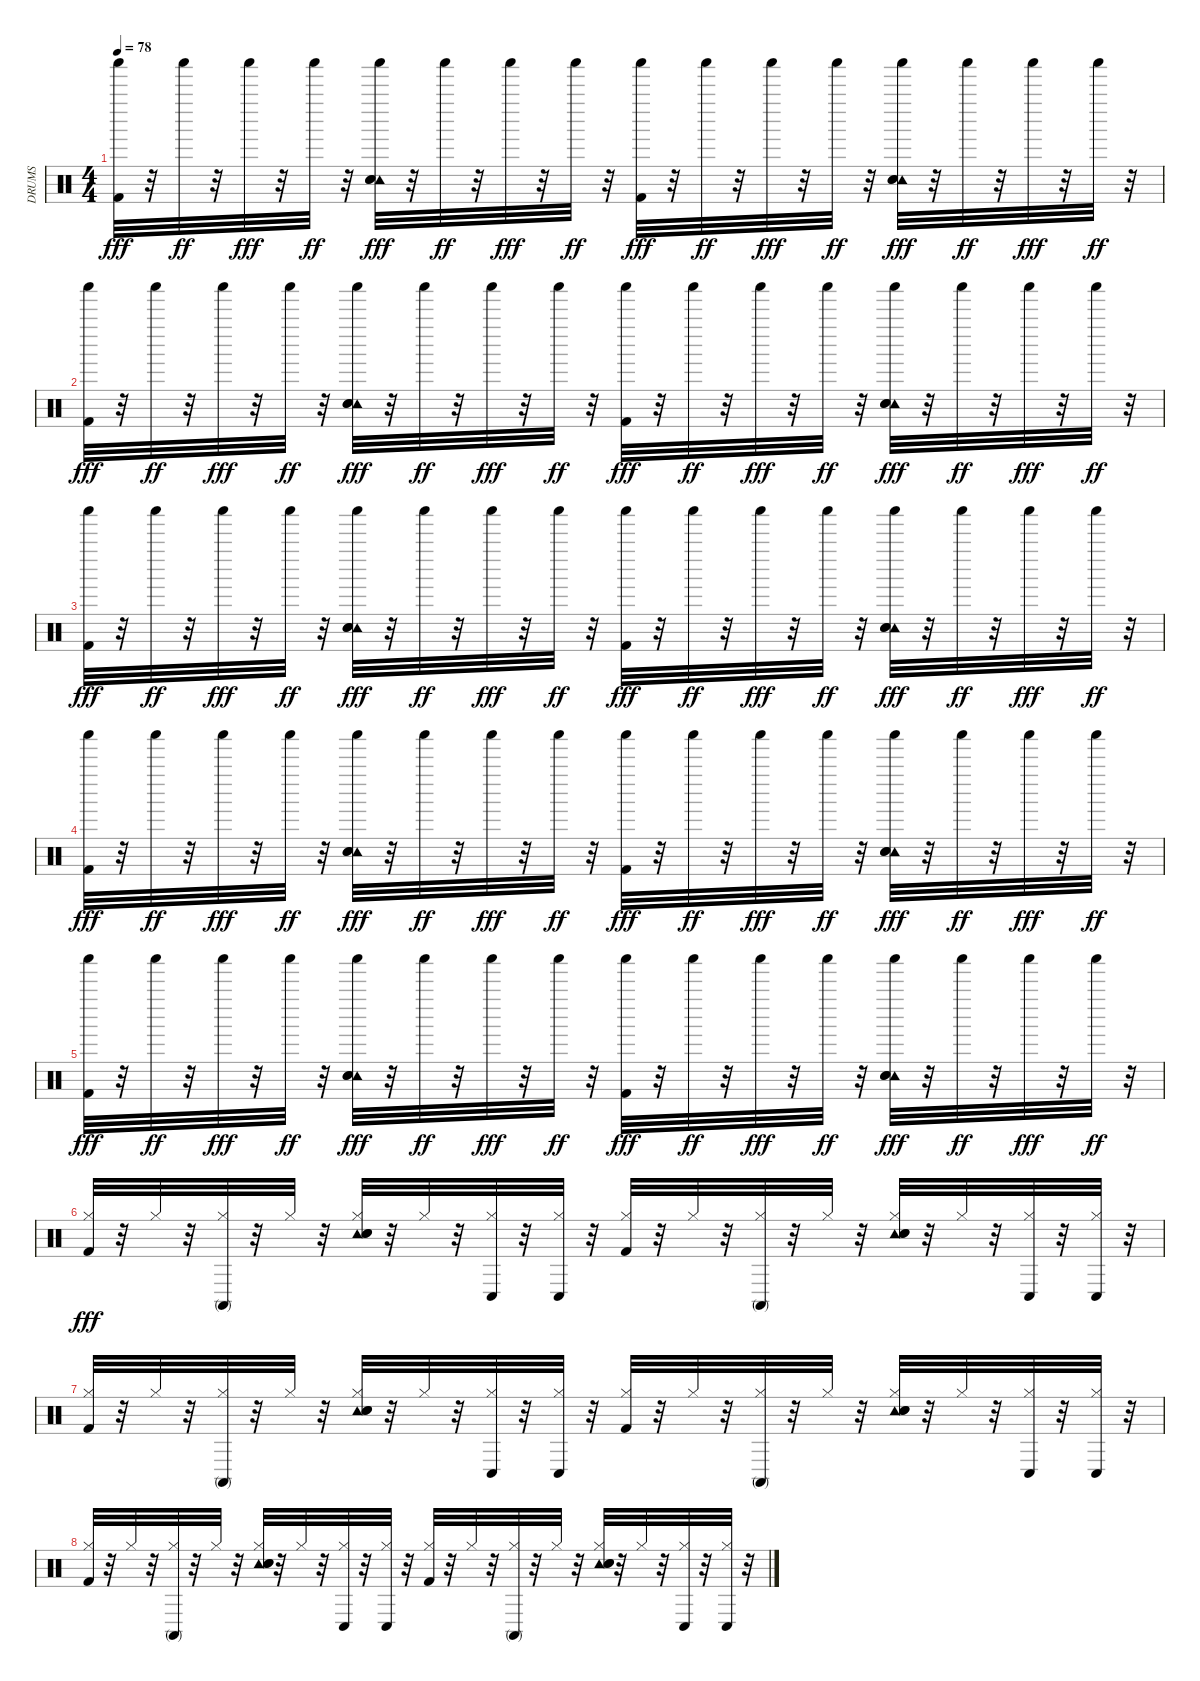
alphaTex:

\track ("DRUMS" "DRUMS") {instrument percussion}
\staff {score}
\articulation defaults
\ts (4 4)
\tempo 78
\clef neutral
\ks c
("Shaker (hit)" "Kick (hit) 2").32{dy fff} r.32 "Shaker (hit)".32{dy ff} r.32 "Shaker (hit)".32{dy fff} r.32 "Shaker (hit)".32{dy ff} r.32 ("Tambourine (hit)" "Snare (hit) 2" "Snare (hit)" "Shaker (hit)").32{dy fff} r.32 "Shaker (hit)".32{dy ff} r.32 "Shaker (hit)".32{dy fff} r.32 "Shaker (hit)".32{dy ff} r.32 ("Kick (hit) 2" "Shaker (hit)").32{dy fff} r.32 "Shaker (hit)".32{dy ff} r.32 "Shaker (hit)".32{dy fff} r.32 "Shaker (hit)".32{dy ff} r.32 ("Tambourine (hit)" "Snare (hit) 2" "Snare (hit)" "Shaker (hit)").32{dy fff} r.32 "Shaker (hit)".32{dy ff} r.32 "Shaker (hit)".32{dy fff} r.32 "Shaker (hit)".32{dy ff} r.32 |
("Shaker (hit)" "Kick (hit) 2").32{dy fff} r.32 "Shaker (hit)".32{dy ff} r.32 "Shaker (hit)".32{dy fff} r.32 "Shaker (hit)".32{dy ff} r.32 ("Tambourine (hit)" "Snare (hit) 2" "Snare (hit)" "Shaker (hit)").32{dy fff} r.32 "Shaker (hit)".32{dy ff} r.32 "Shaker (hit)".32{dy fff} r.32 "Shaker (hit)".32{dy ff} r.32 ("Kick (hit) 2" "Shaker (hit)").32{dy fff} r.32 "Shaker (hit)".32{dy ff} r.32 "Shaker (hit)".32{dy fff} r.32 "Shaker (hit)".32{dy ff} r.32 ("Tambourine (hit)" "Snare (hit) 2" "Snare (hit)" "Shaker (hit)").32{dy fff} r.32 "Shaker (hit)".32{dy ff} r.32 "Shaker (hit)".32{dy fff} r.32 "Shaker (hit)".32{dy ff} r.32 |
("Shaker (hit)" "Kick (hit) 2").32{dy fff} r.32 "Shaker (hit)".32{dy ff} r.32 "Shaker (hit)".32{dy fff} r.32 "Shaker (hit)".32{dy ff} r.32 ("Tambourine (hit)" "Snare (hit) 2" "Snare (hit)" "Shaker (hit)").32{dy fff} r.32 "Shaker (hit)".32{dy ff} r.32 "Shaker (hit)".32{dy fff} r.32 "Shaker (hit)".32{dy ff} r.32 ("Kick (hit) 2" "Shaker (hit)").32{dy fff} r.32 "Shaker (hit)".32{dy ff} r.32 "Shaker (hit)".32{dy fff} r.32 "Shaker (hit)".32{dy ff} r.32 ("Tambourine (hit)" "Snare (hit) 2" "Snare (hit)" "Shaker (hit)").32{dy fff} r.32 "Shaker (hit)".32{dy ff} r.32 "Shaker (hit)".32{dy fff} r.32 "Shaker (hit)".32{dy ff} r.32 |
("Shaker (hit)" "Kick (hit) 2").32{dy fff} r.32 "Shaker (hit)".32{dy ff} r.32 "Shaker (hit)".32{dy fff} r.32 "Shaker (hit)".32{dy ff} r.32 ("Tambourine (hit)" "Snare (hit) 2" "Snare (hit)" "Shaker (hit)").32{dy fff} r.32 "Shaker (hit)".32{dy ff} r.32 "Shaker (hit)".32{dy fff} r.32 "Shaker (hit)".32{dy ff} r.32 ("Kick (hit) 2" "Shaker (hit)").32{dy fff} r.32 "Shaker (hit)".32{dy ff} r.32 "Shaker (hit)".32{dy fff} r.32 "Shaker (hit)".32{dy ff} r.32 ("Tambourine (hit)" "Snare (hit) 2" "Snare (hit)" "Shaker (hit)").32{dy fff} r.32 "Shaker (hit)".32{dy ff} r.32 "Shaker (hit)".32{dy fff} r.32 "Shaker (hit)".32{dy ff} r.32 |
("Shaker (hit)" "Kick (hit) 2").32{dy fff} r.32 "Shaker (hit)".32{dy ff} r.32 "Shaker (hit)".32{dy fff} r.32 "Shaker (hit)".32{dy ff} r.32 ("Tambourine (hit)" "Snare (hit) 2" "Snare (hit)" "Shaker (hit)").32{dy fff} r.32 "Shaker (hit)".32{dy ff} r.32 "Shaker (hit)".32{dy fff} r.32 "Shaker (hit)".32{dy ff} r.32 ("Kick (hit) 2" "Shaker (hit)").32{dy fff} r.32 "Shaker (hit)".32{dy ff} r.32 "Shaker (hit)".32{dy fff} r.32 "Shaker (hit)".32{dy ff} r.32 ("Tambourine (hit)" "Snare (hit) 2" "Snare (hit)" "Shaker (hit)").32{dy fff} r.32 "Shaker (hit)".32{dy ff} r.32 "Shaker (hit)".32{dy fff} r.32 "Shaker (hit)".32{dy ff} r.32 |
("Hi-Hat (closed)" "Kick (hit) 2").32{dy fff} r.32 "Hi-Hat (closed)".32 r.32 ("Conga high (mute)" "Hi-Hat (closed)").32 r.32 "Hi-Hat (closed)".32 r.32 ("Hi-Hat (closed)" "Tambourine (hit)" "Snare (hit)" "Snare (hit) 2").32 r.32 "Hi-Hat (closed)".32 r.32 ("Conga low (hit)" "Hi-Hat (closed)").32 r.32 ("Conga low (hit)" "Hi-Hat (closed)").32 r.32 ("Hi-Hat (closed)" "Kick (hit) 2").32 r.32 "Hi-Hat (closed)".32 r.32 ("Conga high (mute)" "Hi-Hat (closed)").32 r.32 "Hi-Hat (closed)".32 r.32 ("Hi-Hat (closed)" "Tambourine (hit)" "Snare (hit) 2" "Snare (hit)").32 r.32 "Hi-Hat (closed)".32 r.32 ("Conga low (hit)" "Hi-Hat (closed)").32 r.32 ("Conga low (hit)" "Hi-Hat (closed)").32 r.32 |
("Hi-Hat (closed)" "Kick (hit) 2").32 r.32 "Hi-Hat (closed)".32 r.32 ("Conga high (mute)" "Hi-Hat (closed)").32 r.32 "Hi-Hat (closed)".32 r.32 ("Hi-Hat (closed)" "Tambourine (hit)" "Snare (hit)" "Snare (hit) 2").32 r.32 "Hi-Hat (closed)".32 r.32 ("Conga low (hit)" "Hi-Hat (closed)").32 r.32 ("Conga low (hit)" "Hi-Hat (closed)").32 r.32 ("Hi-Hat (closed)" "Kick (hit) 2").32 r.32 "Hi-Hat (closed)".32 r.32 ("Conga high (mute)" "Hi-Hat (closed)").32 r.32 "Hi-Hat (closed)".32 r.32 ("Hi-Hat (closed)" "Tambourine (hit)" "Snare (hit) 2" "Snare (hit)").32 r.32 "Hi-Hat (closed)".32 r.32 ("Conga low (hit)" "Hi-Hat (closed)").32 r.32 ("Conga low (hit)" "Hi-Hat (closed)").32 r.32 |
("Hi-Hat (closed)" "Kick (hit) 2").32 r.32 "Hi-Hat (closed)".32 r.32 ("Conga high (mute)" "Hi-Hat (closed)").32 r.32 "Hi-Hat (closed)".32 r.32 ("Hi-Hat (closed)" "Tambourine (hit)" "Snare (hit)" "Snare (hit) 2").32 r.32 "Hi-Hat (closed)".32 r.32 ("Conga low (hit)" "Hi-Hat (closed)").32 r.32 ("Conga low (hit)" "Hi-Hat (closed)").32 r.32 ("Hi-Hat (closed)" "Kick (hit) 2").32 r.32 "Hi-Hat (closed)".32 r.32 ("Conga high (mute)" "Hi-Hat (closed)").32 r.32 "Hi-Hat (closed)".32 r.32 ("Hi-Hat (closed)" "Tambourine (hit)" "Snare (hit) 2" "Snare (hit)").32 r.32 "Hi-Hat (closed)".32 r.32 ("Conga low (hit)" "Hi-Hat (closed)").32 r.32 ("Conga low (hit)" "Hi-Hat (closed)").32 r.32
